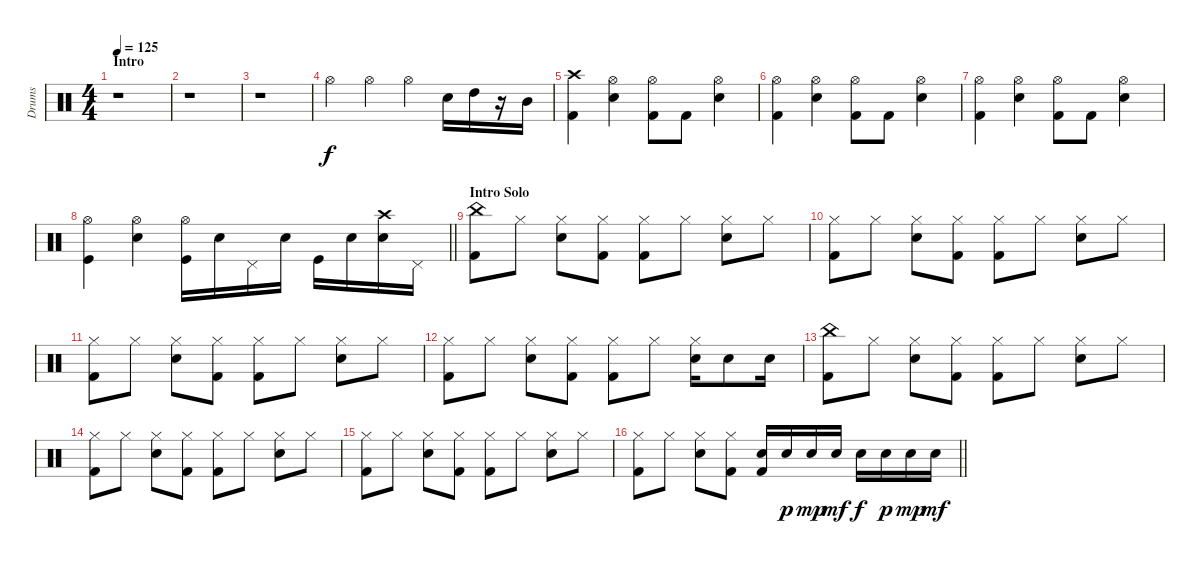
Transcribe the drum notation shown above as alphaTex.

\track ("Drums" "Drums") {instrument percussion}
\staff {score}
\articulation defaults
\ts (4 4)
\section ("" "Intro")
\tempo 125
\clef neutral
\ks c
r.1{dy f} |
r.1 |
r.1 |
"Hi-Hat (open)".4 "Hi-Hat (open)".4 "Hi-Hat (open)".4 "Electric Snare (hit)".16 "High Tom (hit)".16 r.16 "Mid Tom (hit)".16 |
("Crash high (hit)" "Kick (hit) 2").4 ("Hi-Hat (open)" "Electric Snare (hit)").4 ("Hi-Hat (open)" "Kick (hit) 2").8 "Kick (hit) 2".8 ("Hi-Hat (open)" "Electric Snare (hit)").4 |
("Hi-Hat (open)" "Kick (hit) 2").4 ("Hi-Hat (open)" "Electric Snare (hit)").4 ("Hi-Hat (open)" "Kick (hit) 2").8 "Kick (hit) 2".8 ("Hi-Hat (open)" "Electric Snare (hit)").4 |
("Hi-Hat (open)" "Kick (hit) 2").4 ("Hi-Hat (open)" "Electric Snare (hit)").4 ("Hi-Hat (open)" "Kick (hit) 2").8 "Kick (hit) 2".8 ("Hi-Hat (open)" "Electric Snare (hit)").4 |
\barLineRight lightlight
("Hi-Hat (open)" "Kick (hit)").4 ("Hi-Hat (open)" "Electric Snare (hit)").4 ("Hi-Hat (open)" "Kick (hit)").16 "Electric Snare (hit)".16 "Pedal Hi-Hat (hit)".16 "Electric Snare (hit)".16 "Kick (hit)".16 "Electric Snare (hit)".16 ("Crash high (hit)" "Electric Snare (hit)").16 "Pedal Hi-Hat (hit)".16 |
\section ("" "Intro Solo")
("China (hit)" "Kick (hit) 2").8 "Hi-Hat (closed)".8 ("Hi-Hat (closed)" "Electric Snare (hit)").8 ("Hi-Hat (closed)" "Kick (hit) 2").8 ("Hi-Hat (closed)" "Kick (hit) 2").8 "Hi-Hat (closed)".8 ("Hi-Hat (closed)" "Electric Snare (hit)").8 "Hi-Hat (closed)".8 |
("Hi-Hat (closed)" "Kick (hit) 2").8 "Hi-Hat (closed)".8 ("Hi-Hat (closed)" "Electric Snare (hit)").8 ("Hi-Hat (closed)" "Kick (hit) 2").8 ("Hi-Hat (closed)" "Kick (hit) 2").8 "Hi-Hat (closed)".8 ("Hi-Hat (closed)" "Electric Snare (hit)").8 "Hi-Hat (closed)".8 |
("Hi-Hat (closed)" "Kick (hit) 2").8 "Hi-Hat (closed)".8 ("Hi-Hat (closed)" "Electric Snare (hit)").8 ("Hi-Hat (closed)" "Kick (hit) 2").8 ("Hi-Hat (closed)" "Kick (hit) 2").8 "Hi-Hat (closed)".8 ("Hi-Hat (closed)" "Electric Snare (hit)").8 "Hi-Hat (closed)".8 |
("Hi-Hat (closed)" "Kick (hit) 2").8 "Hi-Hat (closed)".8 ("Hi-Hat (closed)" "Electric Snare (hit)").8 ("Hi-Hat (closed)" "Kick (hit) 2").8 ("Hi-Hat (closed)" "Kick (hit) 2").8 "Hi-Hat (closed)".8 ("Hi-Hat (closed)" "Electric Snare (hit)").16 "Electric Snare (hit)".8 "Electric Snare (hit)".16 |
("China (hit)" "Kick (hit) 2").8 "Hi-Hat (closed)".8 ("Hi-Hat (closed)" "Electric Snare (hit)").8 ("Hi-Hat (closed)" "Kick (hit) 2").8 ("Hi-Hat (closed)" "Kick (hit) 2").8 "Hi-Hat (closed)".8 ("Hi-Hat (closed)" "Electric Snare (hit)").8 "Hi-Hat (closed)".8 |
("Hi-Hat (closed)" "Kick (hit) 2").8 "Hi-Hat (closed)".8 ("Hi-Hat (closed)" "Electric Snare (hit)").8 ("Hi-Hat (closed)" "Kick (hit) 2").8 ("Hi-Hat (closed)" "Kick (hit) 2").8 "Hi-Hat (closed)".8 ("Hi-Hat (closed)" "Electric Snare (hit)").8 "Hi-Hat (closed)".8 |
("Hi-Hat (closed)" "Kick (hit) 2").8 "Hi-Hat (closed)".8 ("Hi-Hat (closed)" "Electric Snare (hit)").8 ("Hi-Hat (closed)" "Kick (hit) 2").8 ("Hi-Hat (closed)" "Kick (hit) 2").8 "Hi-Hat (closed)".8 ("Hi-Hat (closed)" "Electric Snare (hit)").8 "Hi-Hat (closed)".8 |
\barLineRight lightlight
("Hi-Hat (closed)" "Kick (hit) 2").8 "Hi-Hat (closed)".8 ("Hi-Hat (closed)" "Electric Snare (hit)").8 ("Hi-Hat (closed)" "Kick (hit) 2").8 ("Electric Snare (hit)" "Kick (hit) 2").16 "Electric Snare (hit)".16{dy p} "Electric Snare (hit)".16{dy mp} "Electric Snare (hit)".16{dy mf} "Electric Snare (hit)".16{dy f} "Electric Snare (hit)".16{dy p} "Electric Snare (hit)".16{dy mp} "Electric Snare (hit)".16{dy mf}
